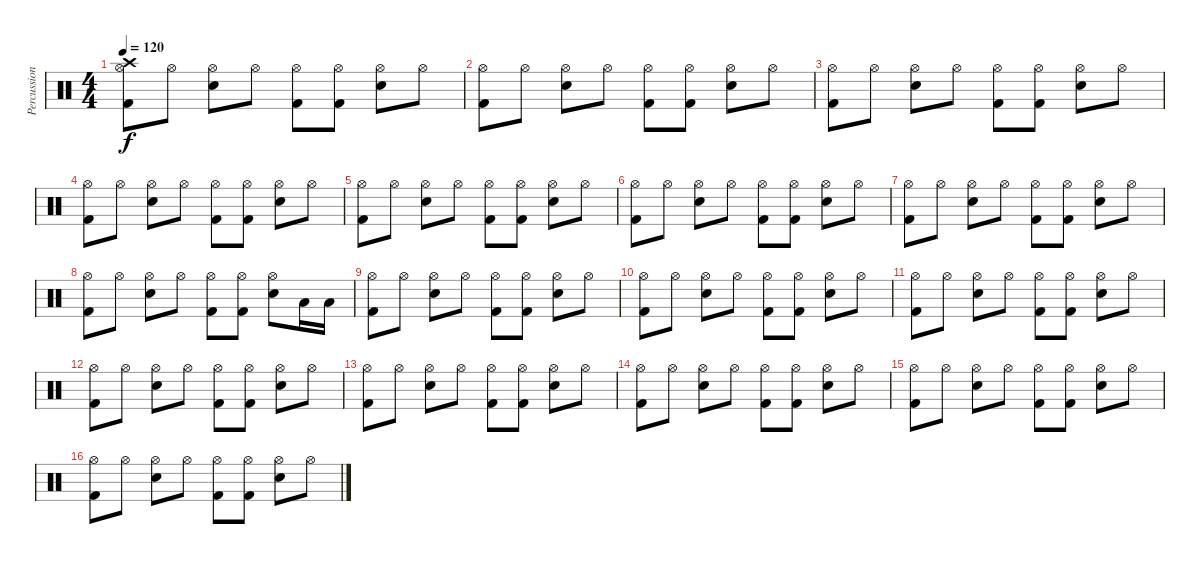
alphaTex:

\track ("Percussion" "Percussion") {instrument percussion}
\staff {score}
\articulation defaults
\ts (4 4)
\tempo 120
\clef neutral
\ks c
("Hi-Hat (open)" "Kick (hit) 2" "Crash high (hit)").8{dy f} "Hi-Hat (open)".8 ("Hi-Hat (open)" "Snare (hit) 2").8 "Hi-Hat (open)".8 ("Hi-Hat (open)" "Kick (hit) 2").8 ("Hi-Hat (open)" "Kick (hit) 2").8 ("Hi-Hat (open)" "Snare (hit) 2").8 "Hi-Hat (open)".8 |
("Hi-Hat (open)" "Kick (hit) 2").8 "Hi-Hat (open)".8 ("Hi-Hat (open)" "Snare (hit) 2").8 "Hi-Hat (open)".8 ("Hi-Hat (open)" "Kick (hit) 2").8 ("Hi-Hat (open)" "Kick (hit) 2").8 ("Hi-Hat (open)" "Snare (hit) 2").8 "Hi-Hat (open)".8 |
("Hi-Hat (open)" "Kick (hit) 2").8 "Hi-Hat (open)".8 ("Hi-Hat (open)" "Snare (hit) 2").8 "Hi-Hat (open)".8 ("Hi-Hat (open)" "Kick (hit) 2").8 ("Hi-Hat (open)" "Kick (hit) 2").8 ("Hi-Hat (open)" "Snare (hit) 2").8 "Hi-Hat (open)".8 |
("Hi-Hat (open)" "Kick (hit) 2").8 "Hi-Hat (open)".8 ("Hi-Hat (open)" "Snare (hit) 2").8 "Hi-Hat (open)".8 ("Hi-Hat (open)" "Kick (hit) 2").8 ("Hi-Hat (open)" "Kick (hit) 2").8 ("Hi-Hat (open)" "Snare (hit) 2").8 "Hi-Hat (open)".8 |
("Hi-Hat (open)" "Kick (hit) 2").8 "Hi-Hat (open)".8 ("Hi-Hat (open)" "Snare (hit) 2").8 "Hi-Hat (open)".8 ("Hi-Hat (open)" "Kick (hit) 2").8 ("Hi-Hat (open)" "Kick (hit) 2").8 ("Hi-Hat (open)" "Snare (hit) 2").8 "Hi-Hat (open)".8 |
("Hi-Hat (open)" "Kick (hit) 2").8 "Hi-Hat (open)".8 ("Hi-Hat (open)" "Snare (hit) 2").8 "Hi-Hat (open)".8 ("Hi-Hat (open)" "Kick (hit) 2").8 ("Hi-Hat (open)" "Kick (hit) 2").8 ("Hi-Hat (open)" "Snare (hit) 2").8 "Hi-Hat (open)".8 |
("Hi-Hat (open)" "Kick (hit) 2").8 "Hi-Hat (open)".8 ("Hi-Hat (open)" "Snare (hit) 2").8 "Hi-Hat (open)".8 ("Hi-Hat (open)" "Kick (hit) 2").8 ("Hi-Hat (open)" "Kick (hit) 2").8 ("Hi-Hat (open)" "Snare (hit) 2").8 "Hi-Hat (open)".8 |
("Hi-Hat (open)" "Kick (hit) 2").8 "Hi-Hat (open)".8 ("Hi-Hat (open)" "Snare (hit) 2").8 "Hi-Hat (open)".8 ("Hi-Hat (open)" "Kick (hit) 2").8 ("Hi-Hat (open)" "Kick (hit) 2").8 ("Hi-Hat (open)" "Snare (hit) 2").8 "Low Floor Tom (hit)".16 "Low Floor Tom (hit)".16 |
("Hi-Hat (open)" "Kick (hit) 2").8 "Hi-Hat (open)".8 ("Hi-Hat (open)" "Snare (hit) 2").8 "Hi-Hat (open)".8 ("Hi-Hat (open)" "Kick (hit) 2").8 ("Hi-Hat (open)" "Kick (hit) 2").8 ("Hi-Hat (open)" "Snare (hit) 2").8 "Hi-Hat (open)".8 |
("Hi-Hat (open)" "Kick (hit) 2").8 "Hi-Hat (open)".8 ("Hi-Hat (open)" "Snare (hit) 2").8 "Hi-Hat (open)".8 ("Hi-Hat (open)" "Kick (hit) 2").8 ("Hi-Hat (open)" "Kick (hit) 2").8 ("Hi-Hat (open)" "Snare (hit) 2").8 "Hi-Hat (open)".8 |
("Hi-Hat (open)" "Kick (hit) 2").8 "Hi-Hat (open)".8 ("Hi-Hat (open)" "Snare (hit) 2").8 "Hi-Hat (open)".8 ("Hi-Hat (open)" "Kick (hit) 2").8 ("Hi-Hat (open)" "Kick (hit) 2").8 ("Hi-Hat (open)" "Snare (hit) 2").8 "Hi-Hat (open)".8 |
("Hi-Hat (open)" "Kick (hit) 2").8 "Hi-Hat (open)".8 ("Hi-Hat (open)" "Snare (hit) 2").8 "Hi-Hat (open)".8 ("Hi-Hat (open)" "Kick (hit) 2").8 ("Hi-Hat (open)" "Kick (hit) 2").8 ("Hi-Hat (open)" "Snare (hit) 2").8 "Hi-Hat (open)".8 |
("Hi-Hat (open)" "Kick (hit) 2").8 "Hi-Hat (open)".8 ("Hi-Hat (open)" "Snare (hit) 2").8 "Hi-Hat (open)".8 ("Hi-Hat (open)" "Kick (hit) 2").8 ("Hi-Hat (open)" "Kick (hit) 2").8 ("Hi-Hat (open)" "Snare (hit) 2").8 "Hi-Hat (open)".8 |
("Hi-Hat (open)" "Kick (hit) 2").8 "Hi-Hat (open)".8 ("Hi-Hat (open)" "Snare (hit) 2").8 "Hi-Hat (open)".8 ("Hi-Hat (open)" "Kick (hit) 2").8 ("Hi-Hat (open)" "Kick (hit) 2").8 ("Hi-Hat (open)" "Snare (hit) 2").8 "Hi-Hat (open)".8 |
("Hi-Hat (open)" "Kick (hit) 2").8 "Hi-Hat (open)".8 ("Hi-Hat (open)" "Snare (hit) 2").8 "Hi-Hat (open)".8 ("Hi-Hat (open)" "Kick (hit) 2").8 ("Hi-Hat (open)" "Kick (hit) 2").8 ("Hi-Hat (open)" "Snare (hit) 2").8 "Hi-Hat (open)".8 |
("Hi-Hat (open)" "Kick (hit) 2").8 "Hi-Hat (open)".8 ("Hi-Hat (open)" "Snare (hit) 2").8 "Hi-Hat (open)".8 ("Hi-Hat (open)" "Kick (hit) 2").8 ("Hi-Hat (open)" "Kick (hit) 2").8 ("Hi-Hat (open)" "Snare (hit) 2").8 "Hi-Hat (open)".8
